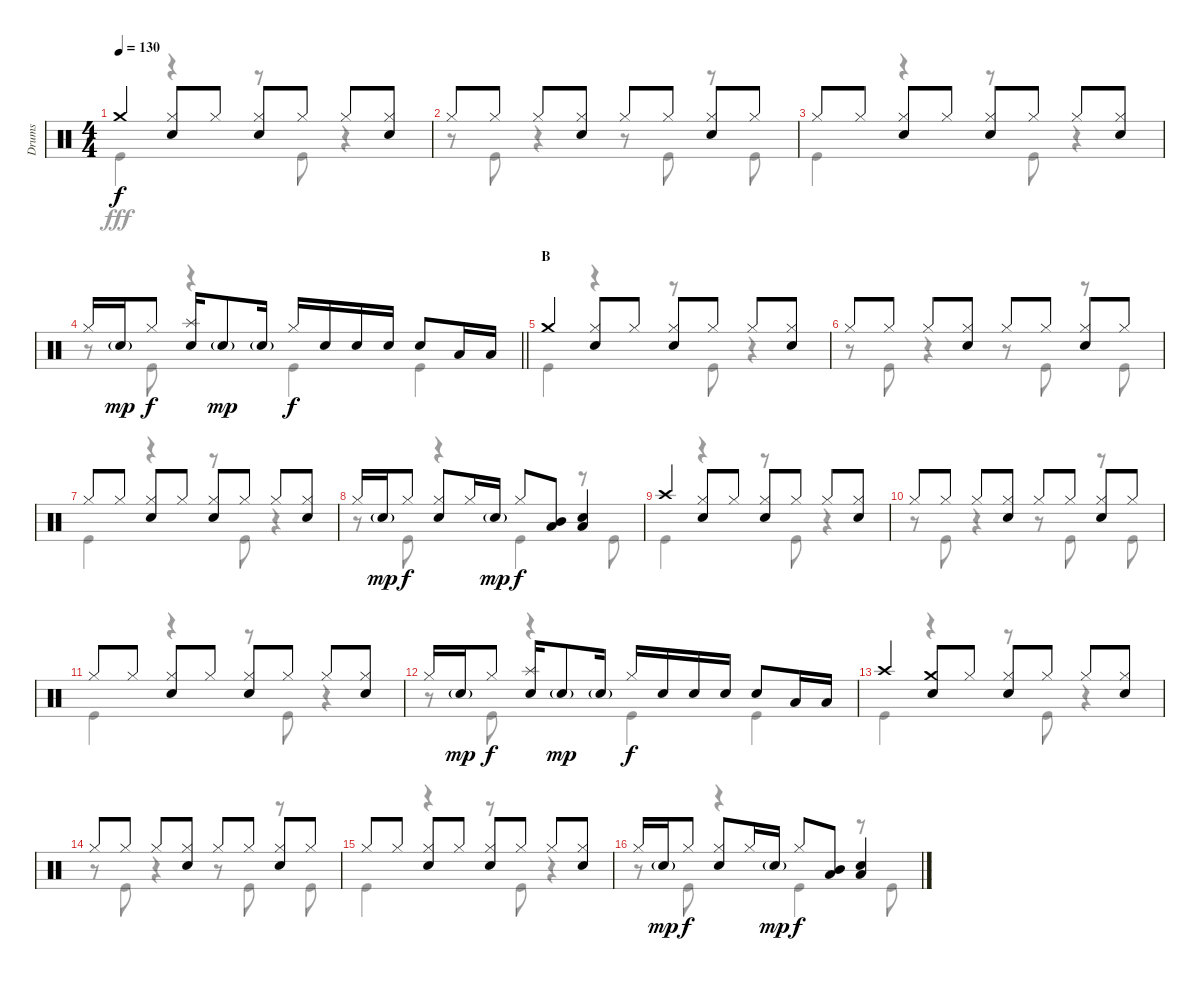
\track ("Drums" "Drums") {instrument percussion}
\staff {score}
\articulation defaults
\voice
\ts (4 4)
\tempo 130
\clef neutral
\ks c "Crash medium (hit)".4{dy f}
("Hi-Hat (closed)" "Snare (hit) 2").8 "Hi-Hat (closed)".8 ("Hi-Hat (closed)" "Snare (hit) 2").8 "Hi-Hat (closed)".8 "Hi-Hat (closed)".8 ("Hi-Hat (closed)" "Snare (hit) 2").8 |
"Hi-Hat (closed)".8 "Hi-Hat (closed)".8 "Hi-Hat (closed)".8 ("Hi-Hat (closed)" "Snare (hit) 2").8 "Hi-Hat (closed)".8 "Hi-Hat (closed)".8 ("Hi-Hat (closed)" "Snare (hit) 2").8 "Hi-Hat (closed)".8 |
"Hi-Hat (closed)".8 "Hi-Hat (closed)".8 ("Hi-Hat (closed)" "Snare (hit) 2").8 "Hi-Hat (closed)".8 ("Hi-Hat (closed)" "Snare (hit) 2").8 "Hi-Hat (closed)".8 "Hi-Hat (closed)".8 ("Hi-Hat (closed)" "Snare (hit) 2").8 |
\barLineRight lightlight "Hi-Hat (closed)".16 "Snare (hit) 2"{g}.16{dy mp} "Hi-Hat (closed)".8{dy f}
("Splash (hit)" "Snare (hit) 2").16 "Snare (hit) 2"{g}.8{dy mp} "Snare (hit) 2"{g}.16 "Hi-Hat (closed)".16{dy f} "Snare (hit) 2".16 "Snare (hit) 2".16 "Snare (hit) 2".16 "Snare (hit) 2".8 "Low Tom (hit)".16 "Low Tom (hit)".16 |
\section ("" "B")
"Crash medium (hit)".4 ("Hi-Hat (closed)" "Snare (hit) 2").8 "Hi-Hat (closed)".8 ("Hi-Hat (closed)" "Snare (hit) 2").8 "Hi-Hat (closed)".8 "Hi-Hat (closed)".8 ("Hi-Hat (closed)" "Snare (hit) 2").8 |
"Hi-Hat (closed)".8 "Hi-Hat (closed)".8 "Hi-Hat (closed)".8 ("Hi-Hat (closed)" "Snare (hit) 2").8 "Hi-Hat (closed)".8 "Hi-Hat (closed)".8 ("Hi-Hat (closed)" "Snare (hit) 2").8 "Hi-Hat (closed)".8 |
"Hi-Hat (closed)".8 "Hi-Hat (closed)".8 ("Hi-Hat (closed)" "Snare (hit) 2").8 "Hi-Hat (closed)".8 ("Hi-Hat (closed)" "Snare (hit) 2").8 "Hi-Hat (closed)".8 "Hi-Hat (closed)".8 ("Hi-Hat (closed)" "Snare (hit) 2").8 |
"Hi-Hat (closed)".16 "Snare (hit) 2"{g}.16{dy mp} "Hi-Hat (closed)".8{dy f} ("Hi-Hat (closed)" "Snare (hit) 2").8 "Hi-Hat (closed)".16 "Snare (hit) 2"{g}.16{dy mp} "Hi-Hat (closed)".8{dy f} ("Mid Tom (hit)" "Low Tom (hit)").8 ("Snare (hit) 2" "Low Tom (hit)").4 |
"Crash high (hit)".4 ("Hi-Hat (closed)" "Snare (hit) 2").8 "Hi-Hat (closed)".8 ("Hi-Hat (closed)" "Snare (hit) 2").8 "Hi-Hat (closed)".8 "Hi-Hat (closed)".8 ("Hi-Hat (closed)" "Snare (hit) 2").8 |
"Hi-Hat (closed)".8 "Hi-Hat (closed)".8 "Hi-Hat (closed)".8 ("Hi-Hat (closed)" "Snare (hit) 2").8 "Hi-Hat (closed)".8 "Hi-Hat (closed)".8 ("Hi-Hat (closed)" "Snare (hit) 2").8 "Hi-Hat (closed)".8 |
"Hi-Hat (closed)".8 "Hi-Hat (closed)".8 ("Hi-Hat (closed)" "Snare (hit) 2").8 "Hi-Hat (closed)".8 ("Hi-Hat (closed)" "Snare (hit) 2").8 "Hi-Hat (closed)".8 "Hi-Hat (closed)".8 ("Hi-Hat (closed)" "Snare (hit) 2").8 |
"Hi-Hat (closed)".16 "Snare (hit) 2"{g}.16{dy mp} "Hi-Hat (closed)".8{dy f} ("Splash (hit)" "Snare (hit) 2").16 "Snare (hit) 2"{g}.8{dy mp} "Snare (hit) 2"{g}.16 "Hi-Hat (closed)".16{dy f} "Snare (hit) 2".16 "Snare (hit) 2".16 "Snare (hit) 2".16 "Snare (hit) 2".8 "Low Tom (hit)".16 "Low Tom (hit)".16 |
"Crash high (hit)".4 ("Crash medium (hit)" "Snare (hit) 2").8 "Hi-Hat (closed)".8 ("Hi-Hat (closed)" "Snare (hit) 2").8 "Hi-Hat (closed)".8 "Hi-Hat (closed)".8 ("Hi-Hat (closed)" "Snare (hit) 2").8 |
"Hi-Hat (closed)".8 "Hi-Hat (closed)".8 "Hi-Hat (closed)".8 ("Hi-Hat (closed)" "Snare (hit) 2").8 "Hi-Hat (closed)".8 "Hi-Hat (closed)".8 ("Hi-Hat (closed)" "Snare (hit) 2").8 "Hi-Hat (closed)".8 |
"Hi-Hat (closed)".8 "Hi-Hat (closed)".8 ("Hi-Hat (closed)" "Snare (hit) 2").8 "Hi-Hat (closed)".8 ("Hi-Hat (closed)" "Snare (hit) 2").8 "Hi-Hat (closed)".8 "Hi-Hat (closed)".8 ("Hi-Hat (closed)" "Snare (hit) 2").8 |
"Hi-Hat (closed)".16 "Snare (hit) 2"{g}.16{dy mp} "Hi-Hat (closed)".8{dy f} ("Hi-Hat (closed)" "Snare (hit) 2").8 "Hi-Hat (closed)".16 "Snare (hit) 2"{g}.16{dy mp} "Hi-Hat (closed)".8{dy f} ("Mid Tom (hit)" "Low Tom (hit)").8 ("Snare (hit) 2" "Low Tom (hit)").4
\voice
\clef neutral
\ottava regular
\simile none
\ks c "Kick (hit)".4{dy fff}
r.4 r.8 "Kick (hit)".8 r.4 |
r.8 "Kick (hit)".8 r.4 r.8 "Kick (hit)".8 r.8 "Kick (hit)".8 |
"Kick (hit)".4 r.4 r.8 "Kick (hit)".8 r.4 |
\barLineRight lightlight
r.8 "Kick (hit)".8 r.4 "Kick (hit)".4 "Kick (hit)".4 |
"Kick (hit)".4 r.4 r.8 "Kick (hit)".8 r.4 |
r.8 "Kick (hit)".8 r.4 r.8 "Kick (hit)".8 r.8 "Kick (hit)".8 |
"Kick (hit)".4 r.4 r.8 "Kick (hit)".8 r.4 |
r.8 "Kick (hit)".8 r.4 "Kick (hit)".4 r.8 "Kick (hit)".8 |
"Kick (hit)".4 r.4 r.8 "Kick (hit)".8 r.4 |
r.8 "Kick (hit)".8 r.4 r.8 "Kick (hit)".8 r.8 "Kick (hit)".8 |
"Kick (hit)".4 r.4 r.8 "Kick (hit)".8 r.4 |
r.8 "Kick (hit)".8 r.4 "Kick (hit)".4 "Kick (hit)".4 |
"Kick (hit)".4 r.4 r.8 "Kick (hit)".8 r.4 |
r.8 "Kick (hit)".8 r.4 r.8 "Kick (hit)".8 r.8 "Kick (hit)".8 |
"Kick (hit)".4 r.4 r.8 "Kick (hit)".8 r.4 |
r.8 "Kick (hit)".8 r.4 "Kick (hit)".4 r.8 "Kick (hit)".8
